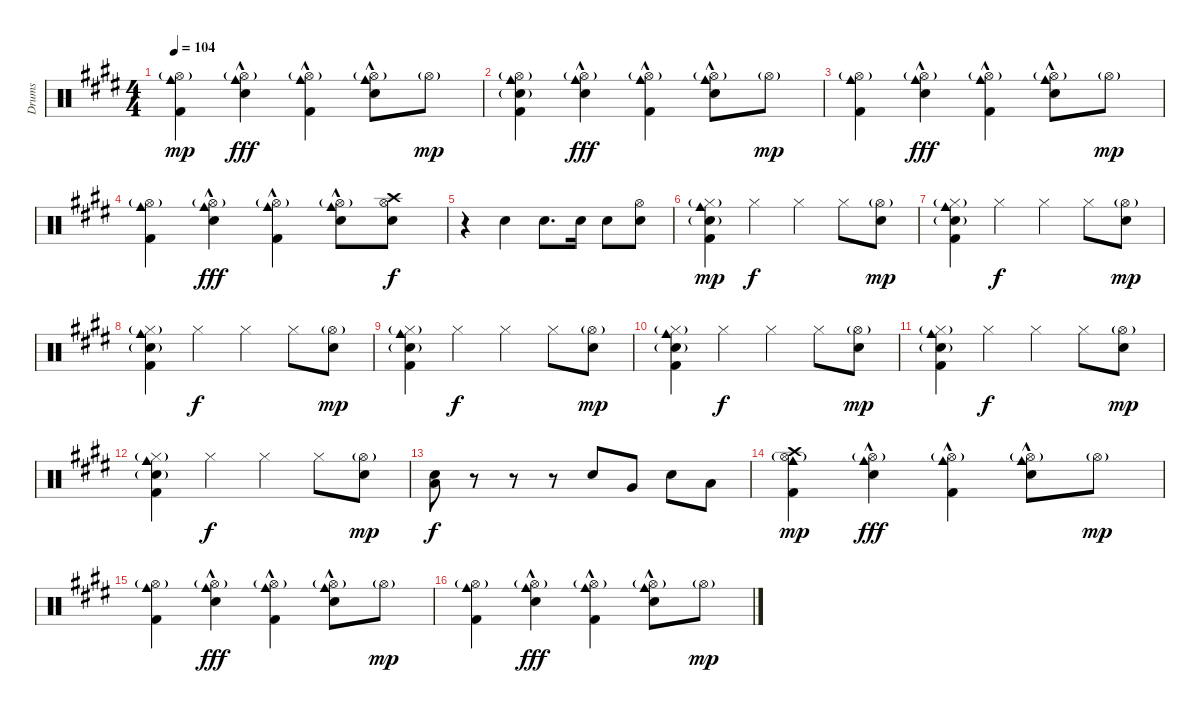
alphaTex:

\track ("Drums" "Drums") {instrument percussion}
\staff {score}
\articulation defaults
\ts (4 4)
\tempo 104
\clef neutral
\ks e
("Cowbell medium (hit)" "Hi-Hat (open)"{g} "Kick (hit) 2").4{dy mp} ("Cowbell medium (hit)" "Hi-Hat (open)"{g} "Electric Snare (hit)"{hac}).4{dy fff} ("Cowbell medium (hit)" "Hi-Hat (open)"{g} "Kick (hit) 2"{hac}).4 ("Cowbell medium (hit)" "Hi-Hat (open)"{g} "Electric Snare (hit)"{hac}).8 "Hi-Hat (open)"{g}.8{dy mp} |
("Cowbell medium (hit)" "Hi-Hat (open)"{g} "Kick (hit) 2" "Electric Snare (hit)"{g}).4 ("Cowbell medium (hit)" "Hi-Hat (open)"{g} "Electric Snare (hit)"{hac}).4{dy fff} ("Cowbell medium (hit)" "Hi-Hat (open)"{g} "Kick (hit) 2"{hac}).4 ("Cowbell medium (hit)" "Hi-Hat (open)"{g} "Electric Snare (hit)"{hac}).8 "Hi-Hat (open)"{g}.8{dy mp} |
("Cowbell medium (hit)" "Hi-Hat (open)"{g} "Kick (hit) 2").4 ("Cowbell medium (hit)" "Hi-Hat (open)"{g} "Electric Snare (hit)"{hac}).4{dy fff} ("Cowbell medium (hit)" "Hi-Hat (open)"{g} "Kick (hit) 2"{hac}).4 ("Cowbell medium (hit)" "Hi-Hat (open)"{g} "Electric Snare (hit)"{hac}).8 "Hi-Hat (open)"{g}.8{dy mp} |
("Cowbell medium (hit)" "Hi-Hat (open)"{g} "Kick (hit) 2").4 ("Cowbell medium (hit)" "Hi-Hat (open)"{g} "Electric Snare (hit)"{hac}).4{dy fff} ("Cowbell medium (hit)" "Hi-Hat (open)"{g} "Kick (hit) 2"{hac}).4 ("Cowbell medium (hit)" "Hi-Hat (open)"{g} "Electric Snare (hit)"{hac}).8 ("Electric Snare (hit)" "Crash high (hit)" "Hi-Hat (open)").8{dy f} |
r.4 "Electric Snare (hit)".4 "Electric Snare (hit)".8{d} "Electric Snare (hit)".16 "Electric Snare (hit)".8 ("Hi-Hat (open)" "Electric Snare (hit)").8 |
("Cowbell medium (hit)" "Hi-Hat (closed)"{g} "Kick (hit) 2" "Electric Snare (hit)"{g}).4{dy mp} "Hi-Hat (closed)".4{dy f} "Hi-Hat (closed)".4 "Hi-Hat (closed)".8 ("Electric Snare (hit)" "Hi-Hat (open)"{g}).8{dy mp} |
("Cowbell medium (hit)" "Hi-Hat (closed)"{g} "Kick (hit) 2" "Electric Snare (hit)"{g}).4 "Hi-Hat (closed)".4{dy f} "Hi-Hat (closed)".4 "Hi-Hat (closed)".8 ("Electric Snare (hit)" "Hi-Hat (open)"{g}).8{dy mp} |
("Cowbell medium (hit)" "Hi-Hat (closed)"{g} "Kick (hit) 2" "Electric Snare (hit)"{g}).4 "Hi-Hat (closed)".4{dy f} "Hi-Hat (closed)".4 "Hi-Hat (closed)".8 ("Electric Snare (hit)" "Hi-Hat (open)"{g}).8{dy mp} |
("Cowbell medium (hit)" "Hi-Hat (closed)"{g} "Kick (hit) 2" "Electric Snare (hit)"{g}).4 "Hi-Hat (closed)".4{dy f} "Hi-Hat (closed)".4 "Hi-Hat (closed)".8 ("Electric Snare (hit)" "Hi-Hat (open)"{g}).8{dy mp} |
("Cowbell medium (hit)" "Hi-Hat (closed)"{g} "Kick (hit) 2" "Electric Snare (hit)"{g}).4 "Hi-Hat (closed)".4{dy f} "Hi-Hat (closed)".4 "Hi-Hat (closed)".8 ("Electric Snare (hit)" "Hi-Hat (open)"{g}).8{dy mp} |
("Cowbell medium (hit)" "Hi-Hat (closed)"{g} "Kick (hit) 2" "Electric Snare (hit)"{g}).4 "Hi-Hat (closed)".4{dy f} "Hi-Hat (closed)".4 "Hi-Hat (closed)".8 ("Electric Snare (hit)" "Hi-Hat (open)"{g}).8{dy mp} |
("Cowbell medium (hit)" "Hi-Hat (closed)"{g} "Kick (hit) 2" "Electric Snare (hit)"{g}).4 "Hi-Hat (closed)".4{dy f} "Hi-Hat (closed)".4 "Hi-Hat (closed)".8 ("Electric Snare (hit)" "Hi-Hat (open)"{g}).8{dy mp} |
("Electric Snare (hit)" "Low Floor Tom (hit)").8{dy f} r.8 r.8 r.8 "Electric Snare (hit)".8 "Very Low Tom (hit)".8 "Electric Snare (hit)".8 "Low Floor Tom (hit)".8 |
("Cowbell medium (hit)" "Hi-Hat (open)"{g} "Crash high (hit)" "Kick (hit) 2").4{dy mp} ("Cowbell medium (hit)" "Hi-Hat (open)"{g} "Electric Snare (hit)"{hac}).4{dy fff} ("Cowbell medium (hit)" "Hi-Hat (open)"{g} "Kick (hit) 2"{hac}).4 ("Cowbell medium (hit)" "Hi-Hat (open)"{g} "Electric Snare (hit)"{hac}).8 "Hi-Hat (open)"{g}.8{dy mp} |
("Cowbell medium (hit)" "Hi-Hat (open)"{g} "Kick (hit) 2").4 ("Cowbell medium (hit)" "Hi-Hat (open)"{g} "Electric Snare (hit)"{hac}).4{dy fff} ("Cowbell medium (hit)" "Hi-Hat (open)"{g} "Kick (hit) 2"{hac}).4 ("Cowbell medium (hit)" "Hi-Hat (open)"{g} "Electric Snare (hit)"{hac}).8 "Hi-Hat (open)"{g}.8{dy mp} |
("Cowbell medium (hit)" "Hi-Hat (open)"{g} "Kick (hit) 2").4 ("Cowbell medium (hit)" "Hi-Hat (open)"{g} "Electric Snare (hit)"{hac}).4{dy fff} ("Cowbell medium (hit)" "Hi-Hat (open)"{g} "Kick (hit) 2"{hac}).4 ("Cowbell medium (hit)" "Hi-Hat (open)"{g} "Electric Snare (hit)"{hac}).8 "Hi-Hat (open)"{g}.8{dy mp}
